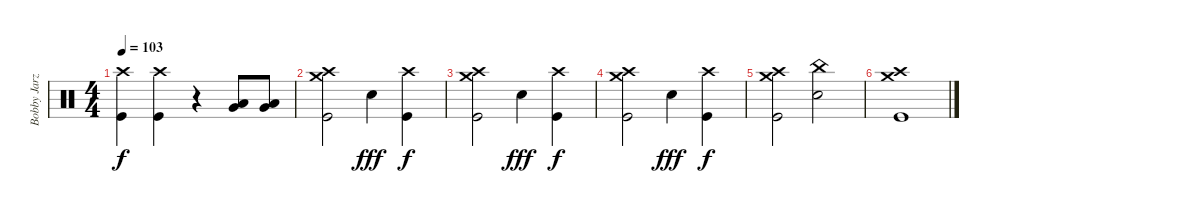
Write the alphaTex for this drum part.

\track ("Bobby Jarzombek" "Bobby Jarz") {instrument percussion}
\staff {score}
\articulation defaults
\ts (4 4)
\tempo 103
\clef neutral
\ks c
("Crash high (hit)" "Kick (hit)").4{dy f} ("Crash high (hit)" "Kick (hit)").4 r.4 ("Very Low Tom (hit)" "Low Tom (hit)").8 ("Very Low Tom (hit)" "Low Tom (hit)").8 |
("Crash high (hit)" "Crash medium (hit)" "Kick (hit)").2 "Electric Snare (hit)".4{dy fff} ("Crash high (hit)" "Kick (hit)").4{dy f} |
("Crash high (hit)" "Crash medium (hit)" "Kick (hit)").2 "Electric Snare (hit)".4{dy fff} ("Crash high (hit)" "Kick (hit)").4{dy f} |
("Crash high (hit)" "Crash medium (hit)" "Kick (hit)").2 "Electric Snare (hit)".4{dy fff} ("Crash high (hit)" "Kick (hit)").4{dy f} |
("Crash high (hit)" "Crash medium (hit)" "Kick (hit)").2 ("China (hit)" "Electric Snare (hit)").2 |
("Crash high (hit)" "Crash medium (hit)" "Kick (hit)").1
